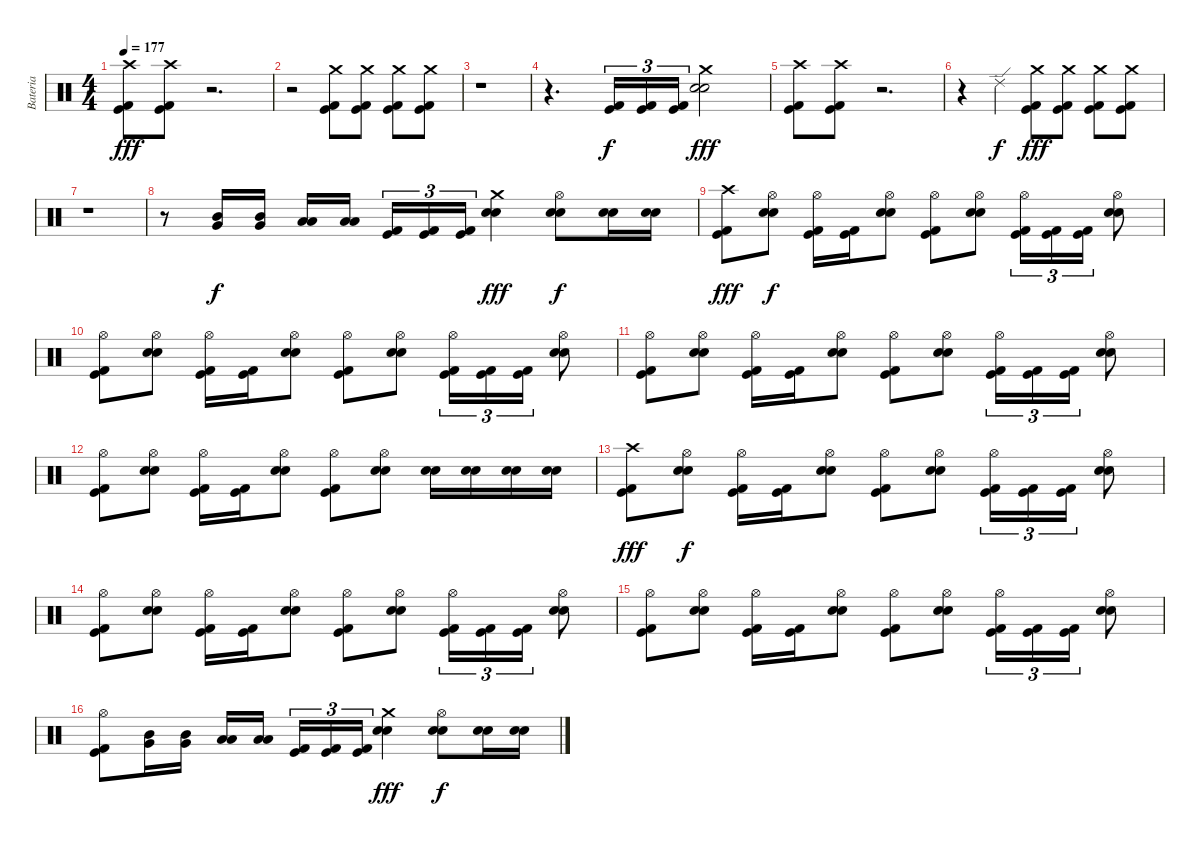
\track ("Bateria" "Bateria") {instrument percussion}
\staff {score}
\articulation defaults
\ts (4 4)
\tempo 177
\clef neutral
\ks c
("Crash high (hit)" "Kick (hit) 2" "Kick (hit)").8{dy fff} ("Crash high (hit)" "Kick (hit) 2" "Kick (hit)").8 r.2{d} |
r.2 ("Crash medium (hit)" "Kick (hit) 2" "Kick (hit)").8 ("Crash medium (hit)" "Kick (hit) 2" "Kick (hit)").8 ("Crash medium (hit)" "Kick (hit) 2" "Kick (hit)").8 ("Crash medium (hit)" "Kick (hit) 2" "Kick (hit)").8 |
r.1 |
r.4{d} ("Kick (hit) 2" "Kick (hit)").16{tu (3 2) dy f} ("Kick (hit) 2" "Kick (hit)").16{tu (3 2)} ("Kick (hit) 2" "Kick (hit)").16{tu (3 2)} ("Crash medium (hit)" "Electric Snare (hit)" "Snare (hit) 2").2{dy fff} |
("Crash high (hit)" "Kick (hit) 2" "Kick (hit)").8 ("Crash high (hit)" "Kick (hit) 2" "Kick (hit)").8 r.2{d} |
r.4 "Ride (edge) 2".4{dy f} ("Crash medium (hit)" "Kick (hit) 2" "Kick (hit)").8{dy fff} ("Crash medium (hit)" "Kick (hit) 2" "Kick (hit)").8 ("Crash medium (hit)" "Kick (hit) 2" "Kick (hit)").8 ("Crash medium (hit)" "Kick (hit) 2" "Kick (hit)").8 |
r.1 |
r.8 ("Mid Tom (hit)" "Very Low Tom (hit)").16{dy f} ("Mid Tom (hit)" "Very Low Tom (hit)").16 ("Low Tom (hit)" "Low Floor Tom (hit)").16 ("Low Tom (hit)" "Low Floor Tom (hit)").16 ("Kick (hit) 2" "Kick (hit)").16{tu (3 2)} ("Kick (hit) 2" "Kick (hit)").16{tu (3 2)} ("Kick (hit) 2" "Kick (hit)").16{tu (3 2)} ("Crash medium (hit)" "Electric Snare (hit)" "Snare (hit) 2").4{dy fff} ("Hi-Hat (open)" "Electric Snare (hit)" "Snare (hit) 2").8{dy f} ("Electric Snare (hit)" "Snare (hit) 2").16 ("Electric Snare (hit)" "Snare (hit) 2").16 |
("Crash high (hit)" "Kick (hit) 2" "Kick (hit)").8{dy fff} ("Hi-Hat (open)" "Electric Snare (hit)" "Snare (hit) 2").8{dy f} ("Hi-Hat (open)" "Kick (hit) 2" "Kick (hit)").16 ("Kick (hit) 2" "Kick (hit)").16 ("Hi-Hat (open)" "Electric Snare (hit)" "Snare (hit) 2").8 ("Hi-Hat (open)" "Kick (hit) 2" "Kick (hit)").8 ("Hi-Hat (open)" "Electric Snare (hit)" "Snare (hit) 2").8 ("Hi-Hat (open)" "Kick (hit) 2" "Kick (hit)").16{tu (3 2)} ("Kick (hit) 2" "Kick (hit)").16{tu (3 2)} ("Kick (hit) 2" "Kick (hit)").16{tu (3 2)} ("Hi-Hat (open)" "Electric Snare (hit)" "Snare (hit) 2").8 |
("Hi-Hat (open)" "Kick (hit) 2" "Kick (hit)").8 ("Hi-Hat (open)" "Electric Snare (hit)" "Snare (hit) 2").8 ("Hi-Hat (open)" "Kick (hit) 2" "Kick (hit)").16 ("Kick (hit) 2" "Kick (hit)").16 ("Hi-Hat (open)" "Electric Snare (hit)" "Snare (hit) 2").8 ("Hi-Hat (open)" "Kick (hit) 2" "Kick (hit)").8 ("Hi-Hat (open)" "Electric Snare (hit)" "Snare (hit) 2").8 ("Hi-Hat (open)" "Kick (hit) 2" "Kick (hit)").16{tu (3 2)} ("Kick (hit) 2" "Kick (hit)").16{tu (3 2)} ("Kick (hit) 2" "Kick (hit)").16{tu (3 2)} ("Hi-Hat (open)" "Electric Snare (hit)" "Snare (hit) 2").8 |
("Hi-Hat (open)" "Kick (hit) 2" "Kick (hit)").8 ("Hi-Hat (open)" "Electric Snare (hit)" "Snare (hit) 2").8 ("Hi-Hat (open)" "Kick (hit) 2" "Kick (hit)").16 ("Kick (hit) 2" "Kick (hit)").16 ("Hi-Hat (open)" "Electric Snare (hit)" "Snare (hit) 2").8 ("Hi-Hat (open)" "Kick (hit) 2" "Kick (hit)").8 ("Hi-Hat (open)" "Electric Snare (hit)" "Snare (hit) 2").8 ("Hi-Hat (open)" "Kick (hit) 2" "Kick (hit)").16{tu (3 2)} ("Kick (hit) 2" "Kick (hit)").16{tu (3 2)} ("Kick (hit) 2" "Kick (hit)").16{tu (3 2)} ("Hi-Hat (open)" "Electric Snare (hit)" "Snare (hit) 2").8 |
("Hi-Hat (open)" "Kick (hit) 2" "Kick (hit)").8 ("Hi-Hat (open)" "Electric Snare (hit)" "Snare (hit) 2").8 ("Hi-Hat (open)" "Kick (hit) 2" "Kick (hit)").16 ("Kick (hit) 2" "Kick (hit)").16 ("Hi-Hat (open)" "Electric Snare (hit)" "Snare (hit) 2").8 ("Hi-Hat (open)" "Kick (hit) 2" "Kick (hit)").8 ("Hi-Hat (open)" "Electric Snare (hit)" "Snare (hit) 2").8 ("Electric Snare (hit)" "Snare (hit) 2").16 ("Electric Snare (hit)" "Snare (hit) 2").16 ("Electric Snare (hit)" "Snare (hit) 2").16 ("Electric Snare (hit)" "Snare (hit) 2").16 |
("Crash high (hit)" "Kick (hit) 2" "Kick (hit)").8{dy fff} ("Hi-Hat (open)" "Electric Snare (hit)" "Snare (hit) 2").8{dy f} ("Hi-Hat (open)" "Kick (hit) 2" "Kick (hit)").16 ("Kick (hit) 2" "Kick (hit)").16 ("Hi-Hat (open)" "Electric Snare (hit)" "Snare (hit) 2").8 ("Hi-Hat (open)" "Kick (hit) 2" "Kick (hit)").8 ("Hi-Hat (open)" "Electric Snare (hit)" "Snare (hit) 2").8 ("Hi-Hat (open)" "Kick (hit) 2" "Kick (hit)").16{tu (3 2)} ("Kick (hit) 2" "Kick (hit)").16{tu (3 2)} ("Kick (hit) 2" "Kick (hit)").16{tu (3 2)} ("Hi-Hat (open)" "Electric Snare (hit)" "Snare (hit) 2").8 |
("Hi-Hat (open)" "Kick (hit) 2" "Kick (hit)").8 ("Hi-Hat (open)" "Electric Snare (hit)" "Snare (hit) 2").8 ("Hi-Hat (open)" "Kick (hit) 2" "Kick (hit)").16 ("Kick (hit) 2" "Kick (hit)").16 ("Hi-Hat (open)" "Electric Snare (hit)" "Snare (hit) 2").8 ("Hi-Hat (open)" "Kick (hit) 2" "Kick (hit)").8 ("Hi-Hat (open)" "Electric Snare (hit)" "Snare (hit) 2").8 ("Hi-Hat (open)" "Kick (hit) 2" "Kick (hit)").16{tu (3 2)} ("Kick (hit) 2" "Kick (hit)").16{tu (3 2)} ("Kick (hit) 2" "Kick (hit)").16{tu (3 2)} ("Hi-Hat (open)" "Electric Snare (hit)" "Snare (hit) 2").8 |
("Hi-Hat (open)" "Kick (hit) 2" "Kick (hit)").8 ("Hi-Hat (open)" "Electric Snare (hit)" "Snare (hit) 2").8 ("Hi-Hat (open)" "Kick (hit) 2" "Kick (hit)").16 ("Kick (hit) 2" "Kick (hit)").16 ("Hi-Hat (open)" "Electric Snare (hit)" "Snare (hit) 2").8 ("Hi-Hat (open)" "Kick (hit) 2" "Kick (hit)").8 ("Hi-Hat (open)" "Electric Snare (hit)" "Snare (hit) 2").8 ("Hi-Hat (open)" "Kick (hit) 2" "Kick (hit)").16{tu (3 2)} ("Kick (hit) 2" "Kick (hit)").16{tu (3 2)} ("Kick (hit) 2" "Kick (hit)").16{tu (3 2)} ("Hi-Hat (open)" "Electric Snare (hit)" "Snare (hit) 2").8 |
("Hi-Hat (open)" "Kick (hit) 2" "Kick (hit)").8 ("Mid Tom (hit)" "Very Low Tom (hit)").16 ("Mid Tom (hit)" "Very Low Tom (hit)").16 ("Low Tom (hit)" "Low Floor Tom (hit)").16 ("Low Tom (hit)" "Low Floor Tom (hit)").16 ("Kick (hit) 2" "Kick (hit)").16{tu (3 2)} ("Kick (hit) 2" "Kick (hit)").16{tu (3 2)} ("Kick (hit) 2" "Kick (hit)").16{tu (3 2)} ("Crash medium (hit)" "Electric Snare (hit)" "Snare (hit) 2").4{dy fff} ("Hi-Hat (open)" "Electric Snare (hit)" "Snare (hit) 2").8{dy f} ("Electric Snare (hit)" "Snare (hit) 2").16 ("Electric Snare (hit)" "Snare (hit) 2").16
